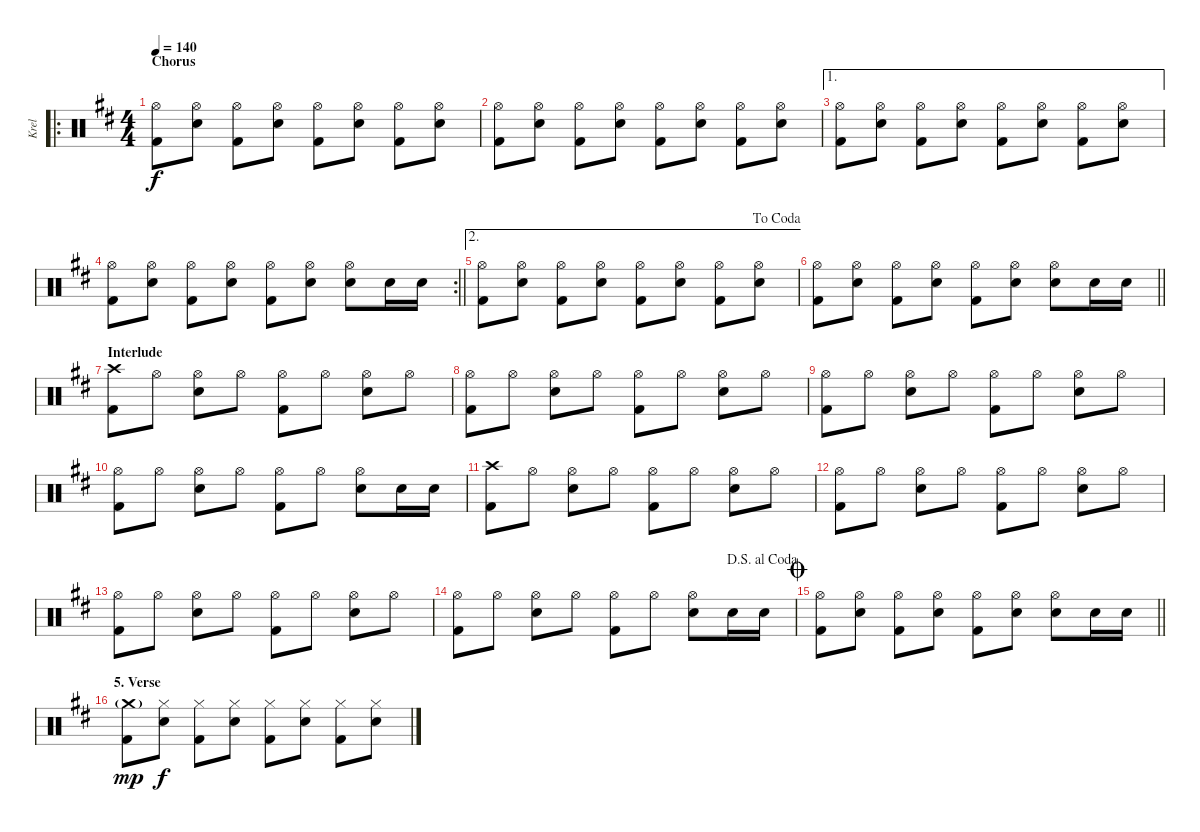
\track ("Krel" "Krel") {instrument percussion}
\staff {score}
\articulation defaults
\ro
\ts (4 4)
\section ("" "Chorus")
\tempo 140
\clef neutral
\ks d
("Hi-Hat (open)" "Kick (hit) 2").8{dy f} ("Hi-Hat (open)" "Snare (hit) 2").8 ("Hi-Hat (open)" "Kick (hit) 2").8 ("Hi-Hat (open)" "Snare (hit) 2").8 ("Hi-Hat (open)" "Kick (hit) 2").8 ("Hi-Hat (open)" "Snare (hit) 2").8 ("Hi-Hat (open)" "Kick (hit) 2").8 ("Hi-Hat (open)" "Snare (hit) 2").8 |
("Hi-Hat (open)" "Kick (hit) 2").8 ("Hi-Hat (open)" "Snare (hit) 2").8 ("Hi-Hat (open)" "Kick (hit) 2").8 ("Hi-Hat (open)" "Snare (hit) 2").8 ("Hi-Hat (open)" "Kick (hit) 2").8 ("Hi-Hat (open)" "Snare (hit) 2").8 ("Hi-Hat (open)" "Kick (hit) 2").8 ("Hi-Hat (open)" "Snare (hit) 2").8 |
\ae 1
("Hi-Hat (open)" "Kick (hit) 2").8 ("Hi-Hat (open)" "Snare (hit) 2").8 ("Hi-Hat (open)" "Kick (hit) 2").8 ("Hi-Hat (open)" "Snare (hit) 2").8 ("Hi-Hat (open)" "Kick (hit) 2").8 ("Hi-Hat (open)" "Snare (hit) 2").8 ("Hi-Hat (open)" "Kick (hit) 2").8 ("Hi-Hat (open)" "Snare (hit) 2").8 |
\rc 2
\barLineRight lightlight
("Hi-Hat (open)" "Kick (hit) 2").8 ("Hi-Hat (open)" "Snare (hit) 2").8 ("Hi-Hat (open)" "Kick (hit) 2").8 ("Hi-Hat (open)" "Snare (hit) 2").8 ("Hi-Hat (open)" "Kick (hit) 2").8 ("Hi-Hat (open)" "Snare (hit) 2").8 ("Hi-Hat (open)" "Snare (hit) 2").8 "Snare (hit) 2".16 "Snare (hit) 2".16 |
\ae 2
\jump dacoda
("Hi-Hat (open)" "Kick (hit) 2").8 ("Hi-Hat (open)" "Snare (hit) 2").8 ("Hi-Hat (open)" "Kick (hit) 2").8 ("Hi-Hat (open)" "Snare (hit) 2").8 ("Hi-Hat (open)" "Kick (hit) 2").8 ("Hi-Hat (open)" "Snare (hit) 2").8 ("Hi-Hat (open)" "Kick (hit) 2").8 ("Hi-Hat (open)" "Snare (hit) 2").8 |
\barLineRight lightlight
("Hi-Hat (open)" "Kick (hit) 2").8 ("Hi-Hat (open)" "Snare (hit) 2").8 ("Hi-Hat (open)" "Kick (hit) 2").8 ("Hi-Hat (open)" "Snare (hit) 2").8 ("Hi-Hat (open)" "Kick (hit) 2").8 ("Hi-Hat (open)" "Snare (hit) 2").8 ("Hi-Hat (open)" "Snare (hit) 2").8 "Snare (hit) 2".16 "Snare (hit) 2".16 |
\section ("" "Interlude")
("Crash high (hit)" "Kick (hit) 2").8 "Hi-Hat (open)".8 ("Hi-Hat (open)" "Snare (hit) 2").8 "Hi-Hat (open)".8 ("Hi-Hat (open)" "Kick (hit) 2").8 "Hi-Hat (open)".8 ("Hi-Hat (open)" "Snare (hit) 2").8 "Hi-Hat (open)".8 |
("Hi-Hat (open)" "Kick (hit) 2").8 "Hi-Hat (open)".8 ("Hi-Hat (open)" "Snare (hit) 2").8 "Hi-Hat (open)".8 ("Hi-Hat (open)" "Kick (hit) 2").8 "Hi-Hat (open)".8 ("Hi-Hat (open)" "Snare (hit) 2").8 "Hi-Hat (open)".8 |
("Hi-Hat (open)" "Kick (hit) 2").8 "Hi-Hat (open)".8 ("Hi-Hat (open)" "Snare (hit) 2").8 "Hi-Hat (open)".8 ("Hi-Hat (open)" "Kick (hit) 2").8 "Hi-Hat (open)".8 ("Hi-Hat (open)" "Snare (hit) 2").8 "Hi-Hat (open)".8 |
("Hi-Hat (open)" "Kick (hit) 2").8 "Hi-Hat (open)".8 ("Hi-Hat (open)" "Snare (hit) 2").8 "Hi-Hat (open)".8 ("Hi-Hat (open)" "Kick (hit) 2").8 "Hi-Hat (open)".8 ("Hi-Hat (open)" "Snare (hit) 2").8 "Snare (hit) 2".16 "Snare (hit) 2".16 |
("Crash high (hit)" "Kick (hit) 2").8 "Hi-Hat (open)".8 ("Hi-Hat (open)" "Snare (hit) 2").8 "Hi-Hat (open)".8 ("Hi-Hat (open)" "Kick (hit) 2").8 "Hi-Hat (open)".8 ("Hi-Hat (open)" "Snare (hit) 2").8 "Hi-Hat (open)".8 |
("Hi-Hat (open)" "Kick (hit) 2").8 "Hi-Hat (open)".8 ("Hi-Hat (open)" "Snare (hit) 2").8 "Hi-Hat (open)".8 ("Hi-Hat (open)" "Kick (hit) 2").8 "Hi-Hat (open)".8 ("Hi-Hat (open)" "Snare (hit) 2").8 "Hi-Hat (open)".8 |
("Hi-Hat (open)" "Kick (hit) 2").8 "Hi-Hat (open)".8 ("Hi-Hat (open)" "Snare (hit) 2").8 "Hi-Hat (open)".8 ("Hi-Hat (open)" "Kick (hit) 2").8 "Hi-Hat (open)".8 ("Hi-Hat (open)" "Snare (hit) 2").8 "Hi-Hat (open)".8 |
\jump dalsegnoalcoda
("Hi-Hat (open)" "Kick (hit) 2").8 "Hi-Hat (open)".8 ("Hi-Hat (open)" "Snare (hit) 2").8 "Hi-Hat (open)".8 ("Hi-Hat (open)" "Kick (hit) 2").8 "Hi-Hat (open)".8 ("Hi-Hat (open)" "Snare (hit) 2").8 "Snare (hit) 2".16 "Snare (hit) 2".16 |
\jump coda
\barLineRight lightlight
("Hi-Hat (open)" "Kick (hit) 2").8 ("Hi-Hat (open)" "Snare (hit) 2").8 ("Hi-Hat (open)" "Kick (hit) 2").8 ("Hi-Hat (open)" "Snare (hit) 2").8 ("Hi-Hat (open)" "Kick (hit) 2").8 ("Hi-Hat (open)" "Snare (hit) 2").8 ("Hi-Hat (open)" "Snare (hit) 2").8 "Snare (hit) 2".16 "Snare (hit) 2".16 |
\section ("" "5. Verse")
("Crash medium (hit)"{g} "Kick (hit) 2").8{dy mp} ("Hi-Hat (closed)" "Snare (hit) 2").8{dy f} ("Hi-Hat (closed)" "Kick (hit) 2").8 ("Hi-Hat (closed)" "Snare (hit) 2").8 ("Hi-Hat (closed)" "Kick (hit) 2").8 ("Hi-Hat (closed)" "Snare (hit) 2").8 ("Hi-Hat (closed)" "Kick (hit) 2").8 ("Hi-Hat (closed)" "Snare (hit) 2").8
